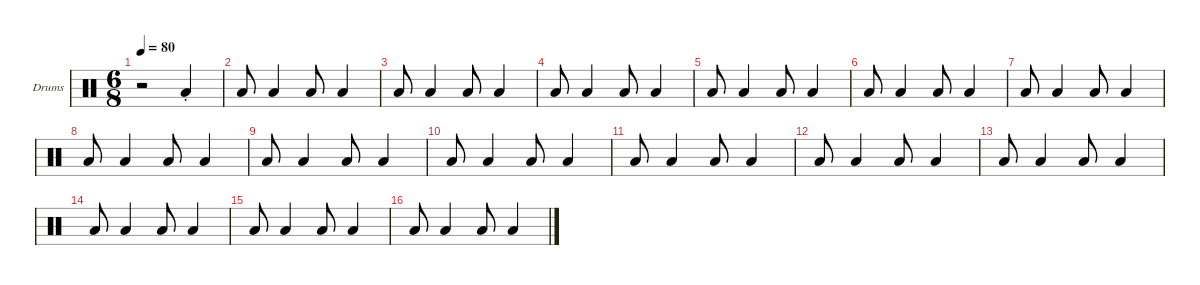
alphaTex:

\defaultSystemsLayout 4
\hideDynamics
\bracketExtendMode groupsimilarinstruments
\firstSystemTrackNameOrientation horizontal
\otherSystemsTrackNameOrientation horizontal
\track ("Drumkit" "Drums") {instrument percussion}
\staff {score}
\articulation defaults
\ts (6 8)
\tempo 80
\clef neutral
\ks c
r.2{dy mp} "Low Tom (hit)"{st}.4 |
"Low Tom (hit)".8 "Low Tom (hit)".4 "Low Tom (hit)".8 "Low Tom (hit)".4 |
"Low Tom (hit)".8 "Low Tom (hit)".4 "Low Tom (hit)".8 "Low Tom (hit)".4 |
"Low Tom (hit)".8 "Low Tom (hit)".4 "Low Tom (hit)".8 "Low Tom (hit)".4 |
"Low Tom (hit)".8 "Low Tom (hit)".4 "Low Tom (hit)".8 "Low Tom (hit)".4 |
"Low Tom (hit)".8 "Low Tom (hit)".4 "Low Tom (hit)".8 "Low Tom (hit)".4 |
"Low Tom (hit)".8 "Low Tom (hit)".4 "Low Tom (hit)".8 "Low Tom (hit)".4 |
"Low Tom (hit)".8 "Low Tom (hit)".4 "Low Tom (hit)".8 "Low Tom (hit)".4 |
"Low Tom (hit)".8 "Low Tom (hit)".4 "Low Tom (hit)".8 "Low Tom (hit)".4 |
"Low Tom (hit)".8 "Low Tom (hit)".4 "Low Tom (hit)".8 "Low Tom (hit)".4 |
"Low Tom (hit)".8 "Low Tom (hit)".4 "Low Tom (hit)".8 "Low Tom (hit)".4 |
"Low Tom (hit)".8 "Low Tom (hit)".4 "Low Tom (hit)".8 "Low Tom (hit)".4 |
"Low Tom (hit)".8 "Low Tom (hit)".4 "Low Tom (hit)".8 "Low Tom (hit)".4 |
"Low Tom (hit)".8 "Low Tom (hit)".4 "Low Tom (hit)".8 "Low Tom (hit)".4 |
"Low Tom (hit)".8 "Low Tom (hit)".4 "Low Tom (hit)".8 "Low Tom (hit)".4 |
"Low Tom (hit)".8 "Low Tom (hit)".4 "Low Tom (hit)".8 "Low Tom (hit)".4
